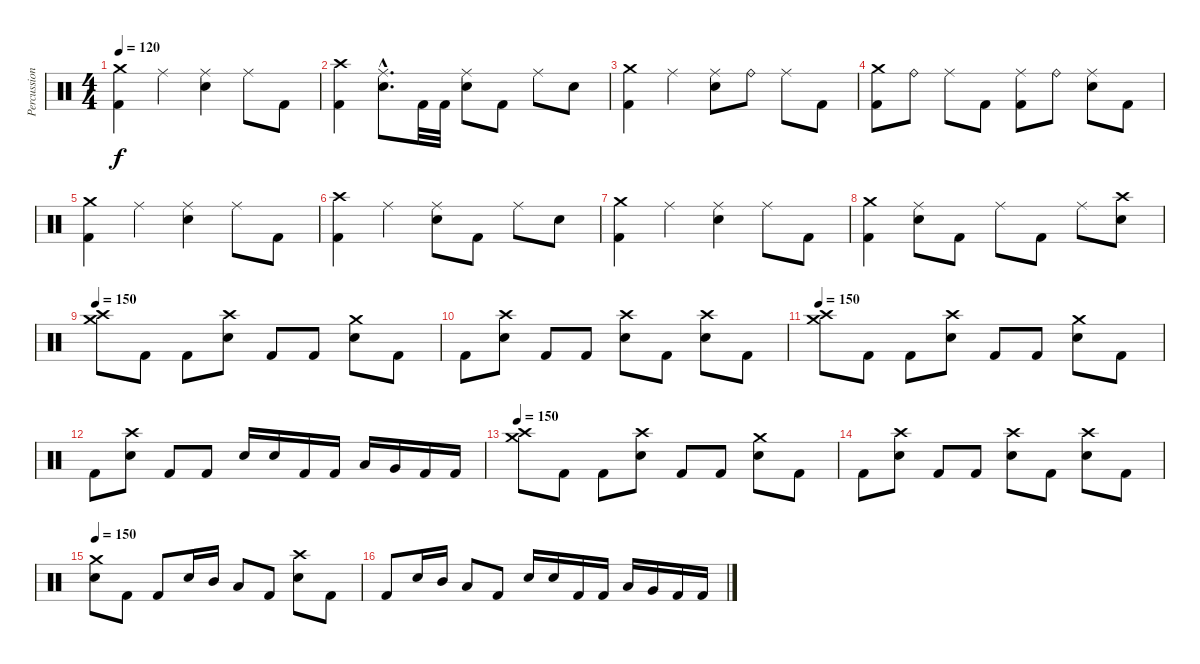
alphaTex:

\track ("Percussion" "Percussion") {instrument percussion}
\staff {score}
\articulation defaults
\ts (4 4)
\tempo 120
\clef neutral
\ks c
("Crash medium (hit)" "Kick (hit) 2").4{dy f} "Ride (middle)".4 ("Ride (middle)" "Snare (hit) 2").4 "Ride (middle)".8 "Kick (hit) 2".8 |
("Crash high (hit)" "Kick (hit) 2").4 ("Ride (middle)"{hac} "Snare (hit) 2"{hac}).8{d} "Kick (hit) 2".32 "Kick (hit) 2".32 ("Ride (middle)" "Snare (hit) 2").8 "Kick (hit) 2".8 "Ride (middle)".8 "Snare (hit) 2".8 |
("Crash medium (hit)" "Kick (hit) 2").4 "Ride (middle)".4 ("Ride (middle)" "Snare (hit) 2").8 "Ride (bell)".8 "Ride (middle)".8 "Kick (hit) 2".8 |
("Crash medium (hit)" "Kick (hit) 2").8 "Ride (bell)".8 "Ride (middle)".8 "Kick (hit) 2".8 ("Ride (middle)" "Kick (hit) 2").8 "Ride (bell)".8 ("Ride (middle)" "Snare (hit) 2").8 "Kick (hit) 2".8 |
("Crash medium (hit)" "Kick (hit) 2").4 "Ride (middle)".4 ("Ride (middle)" "Snare (hit) 2").4 "Ride (middle)".8 "Kick (hit) 2".8 |
("Crash high (hit)" "Kick (hit) 2").4 "Ride (middle)".4 ("Ride (middle)" "Snare (hit) 2").8 "Kick (hit) 2".8 "Ride (middle)".8 "Snare (hit) 2".8 |
("Crash medium (hit)" "Kick (hit) 2").4 "Ride (middle)".4 ("Ride (middle)" "Snare (hit) 2").4 "Ride (middle)".8 "Kick (hit) 2".8 |
("Crash medium (hit)" "Kick (hit) 2").4 ("Ride (middle)" "Snare (hit) 2").8 "Kick (hit) 2".8 "Ride (middle)".8 "Kick (hit) 2".8 "Ride (middle)".8 ("Crash high (hit)" "Snare (hit) 2").8 |
\tempo 150
("Crash medium (hit)" "Crash high (hit)").8 "Kick (hit) 2".8 "Kick (hit) 2".8 ("Crash high (hit)" "Snare (hit) 2").8 "Kick (hit) 2".8 "Kick (hit) 2".8 ("Crash medium (hit)" "Snare (hit) 2").8 "Kick (hit) 2".8 |
"Kick (hit) 2".8 ("Crash high (hit)" "Snare (hit) 2").8 "Kick (hit) 2".8 "Kick (hit) 2".8 ("Crash high (hit)" "Snare (hit) 2").8 "Kick (hit) 2".8 ("Crash high (hit)" "Snare (hit) 2").8 "Kick (hit) 2".8 |
\tempo 150
("Crash medium (hit)" "Crash high (hit)").8 "Kick (hit) 2".8 "Kick (hit) 2".8 ("Crash high (hit)" "Snare (hit) 2").8 "Kick (hit) 2".8 "Kick (hit) 2".8 ("Crash medium (hit)" "Snare (hit) 2").8 "Kick (hit) 2".8 |
"Kick (hit) 2".8 ("Crash high (hit)" "Snare (hit) 2").8 "Kick (hit) 2".8 "Kick (hit) 2".8 "Snare (hit) 2".16 "Snare (hit) 2".16 "Kick (hit) 2".16 "Kick (hit) 2".16 "Low Tom (hit)".16 "Very Low Tom (hit)".16 "Kick (hit) 2".16 "Kick (hit) 2".16 |
\tempo 150
("Crash medium (hit)" "Crash high (hit)").8 "Kick (hit) 2".8 "Kick (hit) 2".8 ("Crash high (hit)" "Snare (hit) 2").8 "Kick (hit) 2".8 "Kick (hit) 2".8 ("Crash medium (hit)" "Snare (hit) 2").8 "Kick (hit) 2".8 |
"Kick (hit) 2".8 ("Crash high (hit)" "Snare (hit) 2").8 "Kick (hit) 2".8 "Kick (hit) 2".8 ("Crash high (hit)" "Snare (hit) 2").8 "Kick (hit) 2".8 ("Crash high (hit)" "Snare (hit) 2").8 "Kick (hit) 2".8 |
\tempo 150
("Crash medium (hit)" "Snare (hit) 2").8 "Kick (hit) 2".8 "Kick (hit) 2".8 "Snare (hit) 2".16 "Mid Tom (hit)".16 "Low Tom (hit)".8 "Kick (hit) 2".8 ("Crash high (hit)" "Snare (hit) 2").8 "Kick (hit) 2".8 |
"Kick (hit) 2".8 "Snare (hit) 2".16 "Mid Tom (hit)".16 "Low Tom (hit)".8 "Kick (hit) 2".8 "Snare (hit) 2".16 "Snare (hit) 2".16 "Kick (hit) 2".16 "Kick (hit) 2".16 "Low Tom (hit)".16 "Very Low Tom (hit)".16 "Kick (hit) 2".16 "Kick (hit) 2".16
